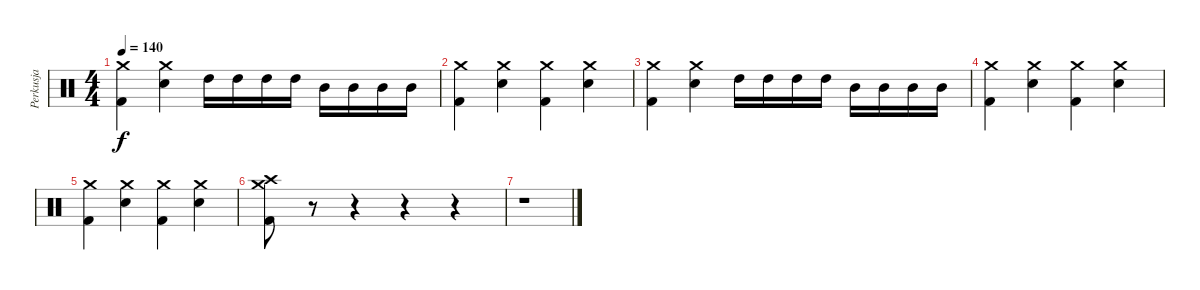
\track ("Perkusja" "Perkusja") {instrument percussion}
\staff {score}
\articulation defaults
\ts (4 4)
\tempo 140
\clef neutral
\ks c
("Crash medium (hit)" "Kick (hit) 2").4{dy f} ("Crash medium (hit)" "Snare (hit) 2").4 "High Tom (hit)".16 "High Tom (hit)".16 "High Tom (hit)".16 "High Tom (hit)".16 "Mid Tom (hit)".16 "Mid Tom (hit)".16 "Mid Tom (hit)".16 "Mid Tom (hit)".16 |
("Crash medium (hit)" "Kick (hit) 2").4 ("Crash medium (hit)" "Snare (hit) 2").4 ("Crash medium (hit)" "Kick (hit) 2").4 ("Crash medium (hit)" "Snare (hit) 2").4 |
("Crash medium (hit)" "Kick (hit) 2").4 ("Crash medium (hit)" "Snare (hit) 2").4 "High Tom (hit)".16 "High Tom (hit)".16 "High Tom (hit)".16 "High Tom (hit)".16 "Mid Tom (hit)".16 "Mid Tom (hit)".16 "Mid Tom (hit)".16 "Mid Tom (hit)".16 |
("Crash medium (hit)" "Kick (hit) 2").4 ("Crash medium (hit)" "Snare (hit) 2").4 ("Crash medium (hit)" "Kick (hit) 2").4 ("Crash medium (hit)" "Snare (hit) 2").4 |
("Crash medium (hit)" "Kick (hit) 2").4 ("Crash medium (hit)" "Snare (hit) 2").4 ("Crash medium (hit)" "Kick (hit) 2").4 ("Crash medium (hit)" "Snare (hit) 2").4 |
("Crash medium (hit)" "Crash high (hit)" "Kick (hit) 2").8 r.8 r.4 r.4 r.4 |
r.1
